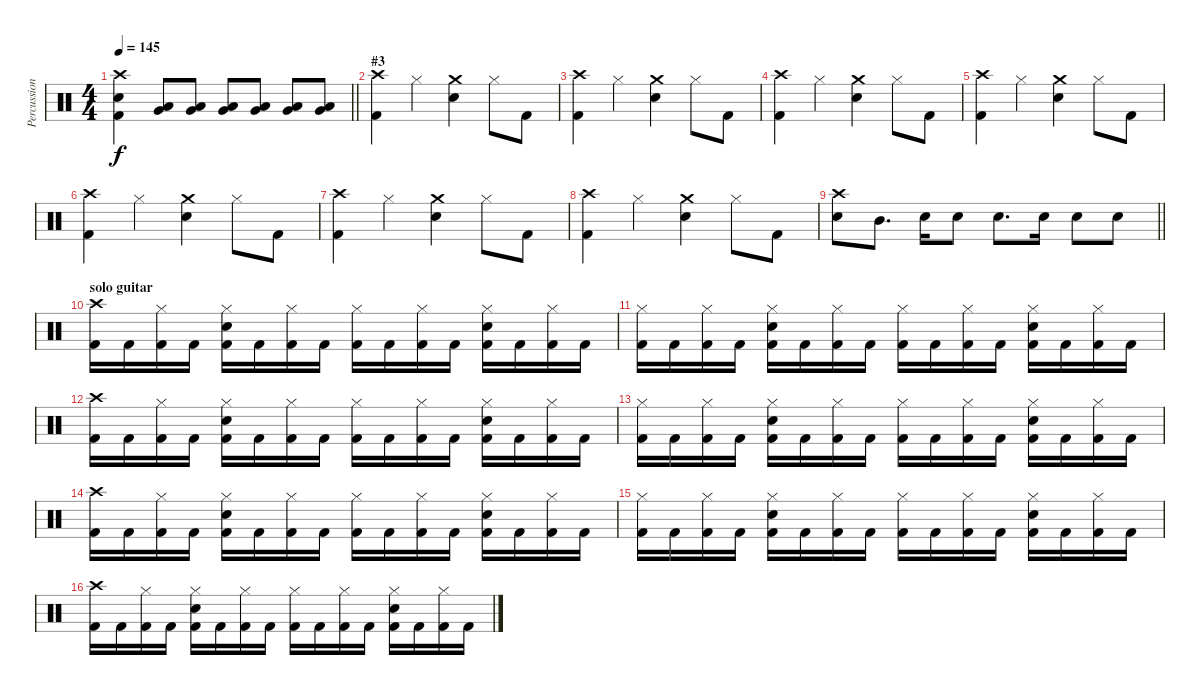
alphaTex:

\track ("Percussion" "Percussion") {instrument percussion}
\staff {score}
\articulation defaults
\ts (4 4)
\tempo 145
\clef neutral
\barLineRight lightlight
\ks c
("Crash high (hit)" "Electric Snare (hit)" "Kick (hit) 2").4{dy f} ("Low Tom (hit)" "Very Low Tom (hit)").8 ("Low Tom (hit)" "Very Low Tom (hit)").8 ("Low Tom (hit)" "Very Low Tom (hit)").8 ("Low Tom (hit)" "Very Low Tom (hit)").8 ("Low Tom (hit)" "Very Low Tom (hit)").8 ("Low Tom (hit)" "Very Low Tom (hit)").8 |
\section ("" "#3")
("Crash high (hit)" "Kick (hit) 2").4 "Hi-Hat (closed)".4 ("Crash medium (hit)" "Electric Snare (hit)").4 "Hi-Hat (closed)".8 "Kick (hit) 2".8 |
("Crash high (hit)" "Kick (hit) 2").4 "Hi-Hat (closed)".4 ("Crash medium (hit)" "Electric Snare (hit)").4 "Hi-Hat (closed)".8 "Kick (hit) 2".8 |
("Crash high (hit)" "Kick (hit) 2").4 "Hi-Hat (closed)".4 ("Crash medium (hit)" "Electric Snare (hit)").4 "Hi-Hat (closed)".8 "Kick (hit) 2".8 |
("Crash high (hit)" "Kick (hit) 2").4 "Hi-Hat (closed)".4 ("Crash medium (hit)" "Electric Snare (hit)").4 "Hi-Hat (closed)".8 "Kick (hit) 2".8 |
("Crash high (hit)" "Kick (hit) 2").4 "Hi-Hat (closed)".4 ("Crash medium (hit)" "Electric Snare (hit)").4 "Hi-Hat (closed)".8 "Kick (hit) 2".8 |
("Crash high (hit)" "Kick (hit) 2").4 "Hi-Hat (closed)".4 ("Crash medium (hit)" "Electric Snare (hit)").4 "Hi-Hat (closed)".8 "Kick (hit) 2".8 |
("Crash high (hit)" "Kick (hit) 2").4 "Hi-Hat (closed)".4 ("Crash medium (hit)" "Electric Snare (hit)").4 "Hi-Hat (closed)".8 "Kick (hit) 2".8 |
\barLineRight lightlight
("Crash high (hit)" "Electric Snare (hit)").8 "Mid Tom (hit)".8{d} "Electric Snare (hit)".16 "Electric Snare (hit)".8 "Electric Snare (hit)".8{d} "Electric Snare (hit)".16 "Electric Snare (hit)".8 "Electric Snare (hit)".8 |
\section ("" "solo guitar")
("Crash high (hit)" "Kick (hit) 2").16 "Kick (hit) 2".16 ("Hi-Hat (closed)" "Kick (hit) 2").16 "Kick (hit) 2".16 ("Hi-Hat (closed)" "Electric Snare (hit)" "Kick (hit) 2").16 "Kick (hit) 2".16 ("Hi-Hat (closed)" "Kick (hit) 2").16 "Kick (hit) 2".16 ("Hi-Hat (closed)" "Kick (hit) 2").16 "Kick (hit) 2".16 ("Hi-Hat (closed)" "Kick (hit) 2").16 "Kick (hit) 2".16 ("Hi-Hat (closed)" "Electric Snare (hit)" "Kick (hit) 2").16 "Kick (hit) 2".16 ("Hi-Hat (closed)" "Kick (hit) 2").16 "Kick (hit) 2".16 |
("Hi-Hat (closed)" "Kick (hit) 2").16 "Kick (hit) 2".16 ("Hi-Hat (closed)" "Kick (hit) 2").16 "Kick (hit) 2".16 ("Hi-Hat (closed)" "Electric Snare (hit)" "Kick (hit) 2").16 "Kick (hit) 2".16 ("Hi-Hat (closed)" "Kick (hit) 2").16 "Kick (hit) 2".16 ("Hi-Hat (closed)" "Kick (hit) 2").16 "Kick (hit) 2".16 ("Hi-Hat (closed)" "Kick (hit) 2").16 "Kick (hit) 2".16 ("Hi-Hat (closed)" "Electric Snare (hit)" "Kick (hit) 2").16 "Kick (hit) 2".16 ("Hi-Hat (closed)" "Kick (hit) 2").16 "Kick (hit) 2".16 |
("Crash high (hit)" "Kick (hit) 2").16 "Kick (hit) 2".16 ("Hi-Hat (closed)" "Kick (hit) 2").16 "Kick (hit) 2".16 ("Hi-Hat (closed)" "Electric Snare (hit)" "Kick (hit) 2").16 "Kick (hit) 2".16 ("Hi-Hat (closed)" "Kick (hit) 2").16 "Kick (hit) 2".16 ("Hi-Hat (closed)" "Kick (hit) 2").16 "Kick (hit) 2".16 ("Hi-Hat (closed)" "Kick (hit) 2").16 "Kick (hit) 2".16 ("Hi-Hat (closed)" "Electric Snare (hit)" "Kick (hit) 2").16 "Kick (hit) 2".16 ("Hi-Hat (closed)" "Kick (hit) 2").16 "Kick (hit) 2".16 |
("Hi-Hat (closed)" "Kick (hit) 2").16 "Kick (hit) 2".16 ("Hi-Hat (closed)" "Kick (hit) 2").16 "Kick (hit) 2".16 ("Hi-Hat (closed)" "Electric Snare (hit)" "Kick (hit) 2").16 "Kick (hit) 2".16 ("Hi-Hat (closed)" "Kick (hit) 2").16 "Kick (hit) 2".16 ("Hi-Hat (closed)" "Kick (hit) 2").16 "Kick (hit) 2".16 ("Hi-Hat (closed)" "Kick (hit) 2").16 "Kick (hit) 2".16 ("Hi-Hat (closed)" "Electric Snare (hit)" "Kick (hit) 2").16 "Kick (hit) 2".16 ("Hi-Hat (closed)" "Kick (hit) 2").16 "Kick (hit) 2".16 |
("Crash high (hit)" "Kick (hit) 2").16 "Kick (hit) 2".16 ("Hi-Hat (closed)" "Kick (hit) 2").16 "Kick (hit) 2".16 ("Hi-Hat (closed)" "Electric Snare (hit)" "Kick (hit) 2").16 "Kick (hit) 2".16 ("Hi-Hat (closed)" "Kick (hit) 2").16 "Kick (hit) 2".16 ("Hi-Hat (closed)" "Kick (hit) 2").16 "Kick (hit) 2".16 ("Hi-Hat (closed)" "Kick (hit) 2").16 "Kick (hit) 2".16 ("Hi-Hat (closed)" "Electric Snare (hit)" "Kick (hit) 2").16 "Kick (hit) 2".16 ("Hi-Hat (closed)" "Kick (hit) 2").16 "Kick (hit) 2".16 |
("Hi-Hat (closed)" "Kick (hit) 2").16 "Kick (hit) 2".16 ("Hi-Hat (closed)" "Kick (hit) 2").16 "Kick (hit) 2".16 ("Hi-Hat (closed)" "Electric Snare (hit)" "Kick (hit) 2").16 "Kick (hit) 2".16 ("Hi-Hat (closed)" "Kick (hit) 2").16 "Kick (hit) 2".16 ("Hi-Hat (closed)" "Kick (hit) 2").16 "Kick (hit) 2".16 ("Hi-Hat (closed)" "Kick (hit) 2").16 "Kick (hit) 2".16 ("Hi-Hat (closed)" "Electric Snare (hit)" "Kick (hit) 2").16 "Kick (hit) 2".16 ("Hi-Hat (closed)" "Kick (hit) 2").16 "Kick (hit) 2".16 |
("Crash high (hit)" "Kick (hit) 2").16 "Kick (hit) 2".16 ("Hi-Hat (closed)" "Kick (hit) 2").16 "Kick (hit) 2".16 ("Hi-Hat (closed)" "Electric Snare (hit)" "Kick (hit) 2").16 "Kick (hit) 2".16 ("Hi-Hat (closed)" "Kick (hit) 2").16 "Kick (hit) 2".16 ("Hi-Hat (closed)" "Kick (hit) 2").16 "Kick (hit) 2".16 ("Hi-Hat (closed)" "Kick (hit) 2").16 "Kick (hit) 2".16 ("Hi-Hat (closed)" "Electric Snare (hit)" "Kick (hit) 2").16 "Kick (hit) 2".16 ("Hi-Hat (closed)" "Kick (hit) 2").16 "Kick (hit) 2".16
